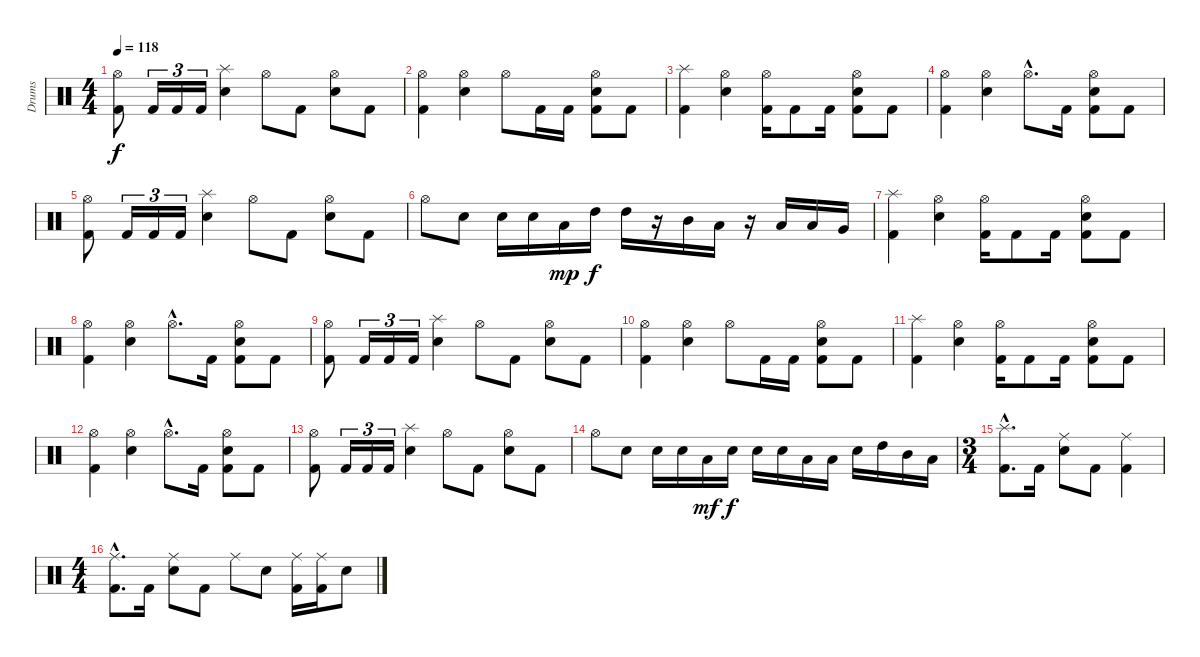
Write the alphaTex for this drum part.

\track ("Drums" "Drums") {instrument percussion}
\staff {score}
\articulation defaults
\ts (4 4)
\tempo 118
\clef neutral
\ks c
("Hi-Hat (open)" "Kick (hit) 2").8{dy f} "Kick (hit) 2".16{tu (3 2)} "Kick (hit) 2".16{tu (3 2)} "Kick (hit) 2".16{tu (3 2)} ("Splash (hit)" "Snare (hit) 2").4 "Hi-Hat (open)".8 "Kick (hit) 2".8 ("Hi-Hat (open)" "Snare (hit) 2").8 "Kick (hit) 2".8 |
("Hi-Hat (open)" "Kick (hit) 2").4 ("Hi-Hat (open)" "Snare (hit) 2").4 "Hi-Hat (open)".8 "Kick (hit) 2".16 "Kick (hit) 2".16 ("Hi-Hat (open)" "Snare (hit) 2" "Kick (hit) 2").8 "Kick (hit) 2".8 |
("Splash (hit)" "Kick (hit) 2").4 ("Hi-Hat (open)" "Snare (hit) 2").4 ("Hi-Hat (open)" "Kick (hit) 2").16 "Kick (hit) 2".8 "Kick (hit) 2".16 ("Hi-Hat (open)" "Snare (hit) 2" "Kick (hit) 2").8 "Kick (hit) 2".8 |
("Hi-Hat (open)" "Kick (hit) 2").4 ("Hi-Hat (open)" "Snare (hit) 2").4 "Hi-Hat (open)"{hac}.8{d} "Kick (hit) 2".16 ("Hi-Hat (open)" "Snare (hit) 2" "Kick (hit) 2").8 "Kick (hit) 2".8 |
("Hi-Hat (open)" "Kick (hit) 2").8 "Kick (hit) 2".16{tu (3 2)} "Kick (hit) 2".16{tu (3 2)} "Kick (hit) 2".16{tu (3 2)} ("Splash (hit)" "Snare (hit) 2").4 "Hi-Hat (open)".8 "Kick (hit) 2".8 ("Hi-Hat (open)" "Snare (hit) 2").8 "Kick (hit) 2".8 |
"Hi-Hat (open)".8 "Snare (hit) 2".8 "Snare (hit) 2".16 "Snare (hit) 2".16 "Low Tom (hit)".16{dy mp} "High Tom (hit)".16{dy f} "High Tom (hit)".16 r.16 "Mid Tom (hit)".16 "Low Tom (hit)".16 r.16 "Low Tom (hit)".16 "Low Tom (hit)".16 "Very Low Tom (hit)".16 |
("Splash (hit)" "Kick (hit) 2").4 ("Hi-Hat (open)" "Snare (hit) 2").4 ("Hi-Hat (open)" "Kick (hit) 2").16 "Kick (hit) 2".8 "Kick (hit) 2".16 ("Hi-Hat (open)" "Snare (hit) 2" "Kick (hit) 2").8 "Kick (hit) 2".8 |
("Hi-Hat (open)" "Kick (hit) 2").4 ("Hi-Hat (open)" "Snare (hit) 2").4 "Hi-Hat (open)"{hac}.8{d} "Kick (hit) 2".16 ("Hi-Hat (open)" "Snare (hit) 2" "Kick (hit) 2").8 "Kick (hit) 2".8 |
("Hi-Hat (open)" "Kick (hit) 2").8 "Kick (hit) 2".16{tu (3 2)} "Kick (hit) 2".16{tu (3 2)} "Kick (hit) 2".16{tu (3 2)} ("Splash (hit)" "Snare (hit) 2").4 "Hi-Hat (open)".8 "Kick (hit) 2".8 ("Hi-Hat (open)" "Snare (hit) 2").8 "Kick (hit) 2".8 |
("Hi-Hat (open)" "Kick (hit) 2").4 ("Hi-Hat (open)" "Snare (hit) 2").4 "Hi-Hat (open)".8 "Kick (hit) 2".16 "Kick (hit) 2".16 ("Hi-Hat (open)" "Snare (hit) 2" "Kick (hit) 2").8 "Kick (hit) 2".8 |
("Splash (hit)" "Kick (hit) 2").4 ("Hi-Hat (open)" "Snare (hit) 2").4 ("Hi-Hat (open)" "Kick (hit) 2").16 "Kick (hit) 2".8 "Kick (hit) 2".16 ("Hi-Hat (open)" "Snare (hit) 2" "Kick (hit) 2").8 "Kick (hit) 2".8 |
("Hi-Hat (open)" "Kick (hit) 2").4 ("Hi-Hat (open)" "Snare (hit) 2").4 "Hi-Hat (open)"{hac}.8{d} "Kick (hit) 2".16 ("Hi-Hat (open)" "Snare (hit) 2" "Kick (hit) 2").8 "Kick (hit) 2".8 |
("Hi-Hat (open)" "Kick (hit) 2").8 "Kick (hit) 2".16{tu (3 2)} "Kick (hit) 2".16{tu (3 2)} "Kick (hit) 2".16{tu (3 2)} ("Splash (hit)" "Snare (hit) 2").4 "Hi-Hat (open)".8 "Kick (hit) 2".8 ("Hi-Hat (open)" "Snare (hit) 2").8 "Kick (hit) 2".8 |
"Hi-Hat (open)".8 "Snare (hit) 2".8 "Snare (hit) 2".16 "Snare (hit) 2".16 "Low Tom (hit)".16{dy mf} "Snare (hit) 2".16{dy f} "Snare (hit) 2".16 "Snare (hit) 2".16 "Low Tom (hit)".16 "Low Tom (hit)".16 "Snare (hit) 2".16 "High Tom (hit)".16 "Mid Tom (hit)".16 "Low Tom (hit)".16 |
\ts (3 4)
("Splash (hit)"{hac} "Kick (hit) 2"{hac}).8{d} "Kick (hit) 2".16 ("Ride (middle)" "Snare (hit) 2").8 "Kick (hit) 2".8 ("Ride (middle)" "Kick (hit) 2").4 |
\ts (4 4)
("Ride (middle)"{hac} "Kick (hit) 2"{hac}).8{d} "Kick (hit) 2".16 ("Ride (middle)" "Snare (hit) 2").8 "Kick (hit) 2".8 "Ride (middle)".8 "Snare (hit) 2".8 ("Ride (middle)" "Kick (hit) 2").16 ("Ride (middle)" "Kick (hit) 2").16 "Snare (hit) 2".8
